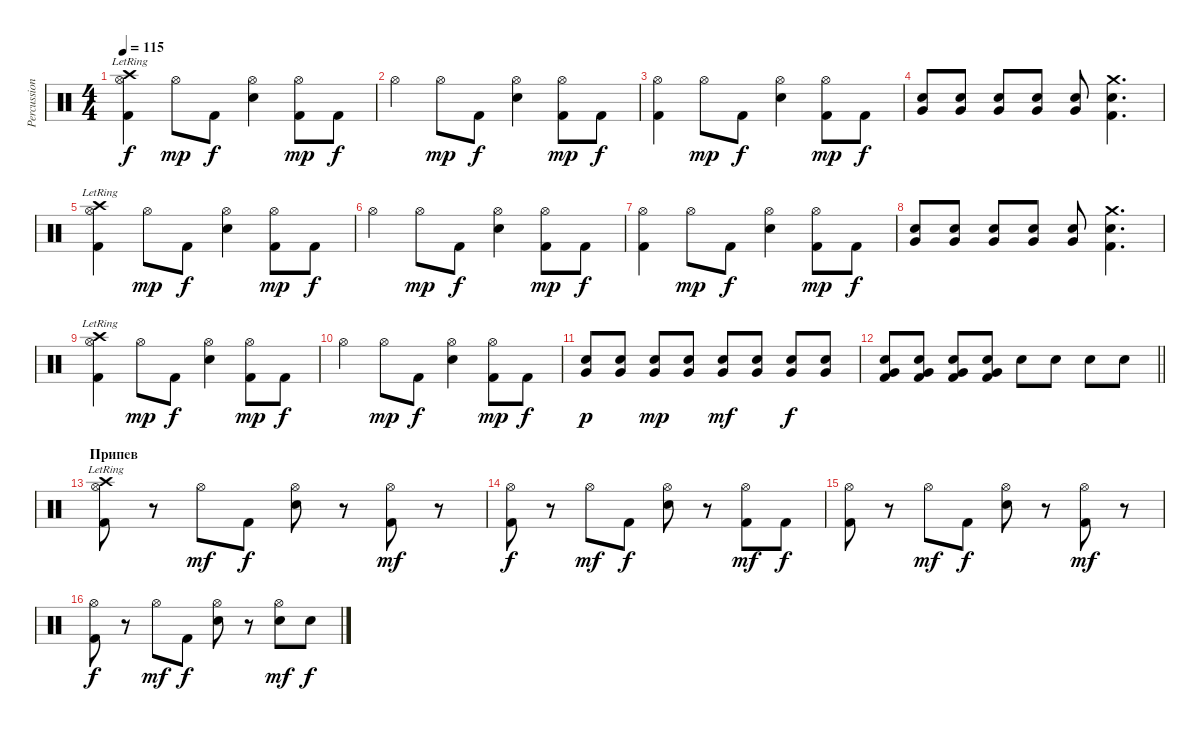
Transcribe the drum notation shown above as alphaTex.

\track ("Percussions" "Percussion") {instrument percussion}
\staff {score}
\articulation defaults
\ts (4 4)
\tempo 115
\clef neutral
\ks c
("Crash high (hit)"{lr} "Kick (hit) 2" "Hi-Hat (open)").4{dy f} "Hi-Hat (open)".8{dy mp} "Kick (hit) 2".8{dy f} ("Electric Snare (hit)" "Hi-Hat (open)").4 ("Kick (hit) 2" "Hi-Hat (open)").8{dy mp} "Kick (hit) 2".8{dy f} |
"Hi-Hat (open)".4 "Hi-Hat (open)".8{dy mp} "Kick (hit) 2".8{dy f} ("Electric Snare (hit)" "Hi-Hat (open)").4 ("Kick (hit) 2" "Hi-Hat (open)").8{dy mp} "Kick (hit) 2".8{dy f} |
("Kick (hit) 2" "Hi-Hat (open)").4 "Hi-Hat (open)".8{dy mp} "Kick (hit) 2".8{dy f} ("Electric Snare (hit)" "Hi-Hat (open)").4 ("Kick (hit) 2" "Hi-Hat (open)").8{dy mp} "Kick (hit) 2".8{dy f} |
("Electric Snare (hit)" "Very Low Tom (hit)").8 ("Electric Snare (hit)" "Very Low Tom (hit)").8 ("Electric Snare (hit)" "Very Low Tom (hit)").8 ("Electric Snare (hit)" "Very Low Tom (hit)").8 ("Electric Snare (hit)" "Very Low Tom (hit)").8 ("Crash medium (hit)" "Electric Snare (hit)" "Kick (hit) 2").4{d} |
("Crash high (hit)"{lr} "Kick (hit) 2" "Hi-Hat (open)").4 "Hi-Hat (open)".8{dy mp} "Kick (hit) 2".8{dy f} ("Electric Snare (hit)" "Hi-Hat (open)").4 ("Kick (hit) 2" "Hi-Hat (open)").8{dy mp} "Kick (hit) 2".8{dy f} |
"Hi-Hat (open)".4 "Hi-Hat (open)".8{dy mp} "Kick (hit) 2".8{dy f} ("Electric Snare (hit)" "Hi-Hat (open)").4 ("Kick (hit) 2" "Hi-Hat (open)").8{dy mp} "Kick (hit) 2".8{dy f} |
("Kick (hit) 2" "Hi-Hat (open)").4 "Hi-Hat (open)".8{dy mp} "Kick (hit) 2".8{dy f} ("Electric Snare (hit)" "Hi-Hat (open)").4 ("Kick (hit) 2" "Hi-Hat (open)").8{dy mp} "Kick (hit) 2".8{dy f} |
("Electric Snare (hit)" "Very Low Tom (hit)").8 ("Electric Snare (hit)" "Very Low Tom (hit)").8 ("Electric Snare (hit)" "Very Low Tom (hit)").8 ("Electric Snare (hit)" "Very Low Tom (hit)").8 ("Electric Snare (hit)" "Very Low Tom (hit)").8 ("Crash medium (hit)" "Electric Snare (hit)" "Kick (hit) 2").4{d} |
("Crash high (hit)"{lr} "Kick (hit) 2" "Hi-Hat (open)").4 "Hi-Hat (open)".8{dy mp} "Kick (hit) 2".8{dy f} ("Electric Snare (hit)" "Hi-Hat (open)").4 ("Kick (hit) 2" "Hi-Hat (open)").8{dy mp} "Kick (hit) 2".8{dy f} |
"Hi-Hat (open)".4 "Hi-Hat (open)".8{dy mp} "Kick (hit) 2".8{dy f} ("Electric Snare (hit)" "Hi-Hat (open)").4 ("Kick (hit) 2" "Hi-Hat (open)").8{dy mp} "Kick (hit) 2".8{dy f} |
("Electric Snare (hit)" "Very Low Tom (hit)").8{dy p} ("Electric Snare (hit)" "Very Low Tom (hit)").8 ("Electric Snare (hit)" "Very Low Tom (hit)").8{dy mp} ("Electric Snare (hit)" "Very Low Tom (hit)").8 ("Electric Snare (hit)" "Very Low Tom (hit)").8{dy mf} ("Electric Snare (hit)" "Very Low Tom (hit)").8 ("Electric Snare (hit)" "Very Low Tom (hit)").8{dy f} ("Electric Snare (hit)" "Very Low Tom (hit)").8 |
\barLineRight lightlight
("Electric Snare (hit)" "Very Low Tom (hit)" "Kick (hit) 2").8 ("Electric Snare (hit)" "Very Low Tom (hit)" "Kick (hit) 2").8 ("Electric Snare (hit)" "Very Low Tom (hit)" "Kick (hit) 2").8 ("Electric Snare (hit)" "Very Low Tom (hit)" "Kick (hit) 2").8 "Electric Snare (hit)".8 "Electric Snare (hit)".8 "Electric Snare (hit)".8 "Electric Snare (hit)".8 |
\section ("" "Припев")
("Crash high (hit)"{lr} "Kick (hit) 2" "Hi-Hat (open)").8 r.8 "Hi-Hat (open)".8{dy mf} "Kick (hit) 2".8{dy f} ("Electric Snare (hit)" "Hi-Hat (open)").8 r.8 ("Kick (hit) 2" "Hi-Hat (open)").8{dy mf} r.8 |
("Kick (hit) 2" "Hi-Hat (open)").8{dy f} r.8 "Hi-Hat (open)".8{dy mf} "Kick (hit) 2".8{dy f} ("Electric Snare (hit)" "Hi-Hat (open)").8 r.8 ("Kick (hit) 2" "Hi-Hat (open)").8{dy mf} "Kick (hit) 2".8{dy f} |
("Kick (hit) 2" "Hi-Hat (open)").8 r.8 "Hi-Hat (open)".8{dy mf} "Kick (hit) 2".8{dy f} ("Electric Snare (hit)" "Hi-Hat (open)").8 r.8 ("Kick (hit) 2" "Hi-Hat (open)").8{dy mf} r.8 |
("Kick (hit) 2" "Hi-Hat (open)").8{dy f} r.8 "Hi-Hat (open)".8{dy mf} "Kick (hit) 2".8{dy f} ("Electric Snare (hit)" "Hi-Hat (open)").8 r.8 ("Electric Snare (hit)" "Hi-Hat (open)").8{dy mf} "Electric Snare (hit)".8{dy f}
